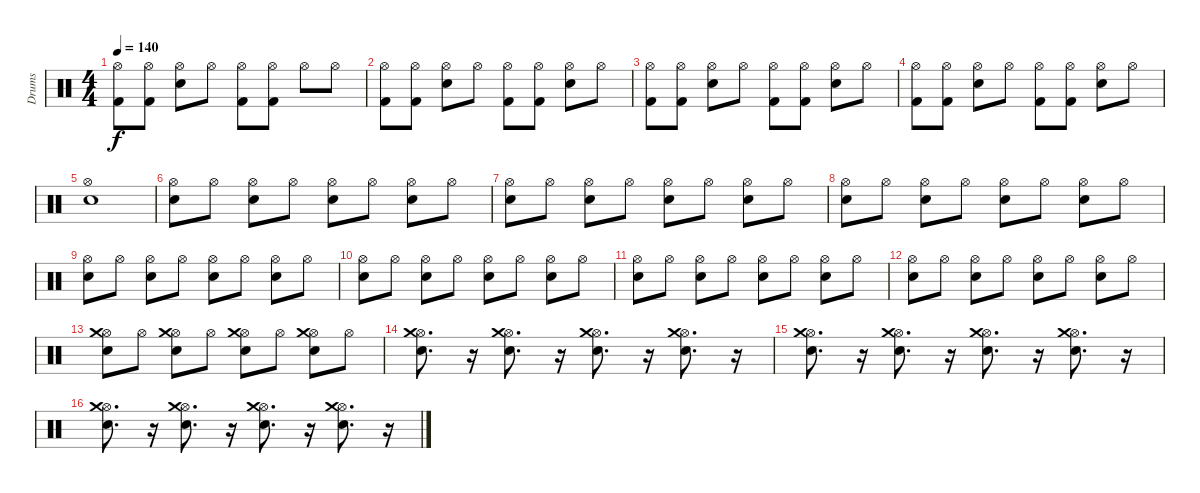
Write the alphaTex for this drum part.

\track ("Drums" "Drums") {instrument percussion}
\staff {score}
\articulation defaults
\ts (4 4)
\tempo 140
\clef neutral
\ks c
("Kick (hit) 2" "Hi-Hat (open)").8{dy f} ("Kick (hit) 2" "Hi-Hat (open)").8 ("Snare (hit) 2" "Hi-Hat (open)").8 "Hi-Hat (open)".8 ("Kick (hit) 2" "Hi-Hat (open)").8 ("Kick (hit) 2" "Hi-Hat (open)").8 "Hi-Hat (open)".8 "Hi-Hat (open)".8 |
("Kick (hit) 2" "Hi-Hat (open)").8 ("Kick (hit) 2" "Hi-Hat (open)").8 ("Snare (hit) 2" "Hi-Hat (open)").8 "Hi-Hat (open)".8 ("Kick (hit) 2" "Hi-Hat (open)").8 ("Kick (hit) 2" "Hi-Hat (open)").8 ("Hi-Hat (open)" "Snare (hit) 2").8 "Hi-Hat (open)".8 |
("Kick (hit) 2" "Hi-Hat (open)").8 ("Kick (hit) 2" "Hi-Hat (open)").8 ("Snare (hit) 2" "Hi-Hat (open)").8 "Hi-Hat (open)".8 ("Kick (hit) 2" "Hi-Hat (open)").8 ("Kick (hit) 2" "Hi-Hat (open)").8 ("Snare (hit) 2" "Hi-Hat (open)").8 "Hi-Hat (open)".8 |
("Kick (hit) 2" "Hi-Hat (open)").8 ("Kick (hit) 2" "Hi-Hat (open)").8 ("Snare (hit) 2" "Hi-Hat (open)").8 "Hi-Hat (open)".8 ("Kick (hit) 2" "Hi-Hat (open)").8 ("Kick (hit) 2" "Hi-Hat (open)").8 ("Snare (hit) 2" "Hi-Hat (open)").8 "Hi-Hat (open)".8 |
("Hi-Hat (open)" "Snare (hit) 2").1 |
("Snare (hit) 2" "Hi-Hat (open)").8 "Hi-Hat (open)".8 ("Snare (hit) 2" "Hi-Hat (open)").8 "Hi-Hat (open)".8 ("Snare (hit) 2" "Hi-Hat (open)").8 "Hi-Hat (open)".8 ("Snare (hit) 2" "Hi-Hat (open)").8 "Hi-Hat (open)".8 |
("Snare (hit) 2" "Hi-Hat (open)").8 "Hi-Hat (open)".8 ("Snare (hit) 2" "Hi-Hat (open)").8 "Hi-Hat (open)".8 ("Snare (hit) 2" "Hi-Hat (open)").8 "Hi-Hat (open)".8 ("Snare (hit) 2" "Hi-Hat (open)").8 "Hi-Hat (open)".8 |
("Snare (hit) 2" "Hi-Hat (open)").8 "Hi-Hat (open)".8 ("Snare (hit) 2" "Hi-Hat (open)").8 "Hi-Hat (open)".8 ("Snare (hit) 2" "Hi-Hat (open)").8 "Hi-Hat (open)".8 ("Snare (hit) 2" "Hi-Hat (open)").8 "Hi-Hat (open)".8 |
("Snare (hit) 2" "Hi-Hat (open)").8 "Hi-Hat (open)".8 ("Snare (hit) 2" "Hi-Hat (open)").8 "Hi-Hat (open)".8 ("Snare (hit) 2" "Hi-Hat (open)").8 "Hi-Hat (open)".8 ("Snare (hit) 2" "Hi-Hat (open)").8 "Hi-Hat (open)".8 |
("Snare (hit) 2" "Hi-Hat (open)").8 "Hi-Hat (open)".8 ("Snare (hit) 2" "Hi-Hat (open)").8 "Hi-Hat (open)".8 ("Snare (hit) 2" "Hi-Hat (open)").8 "Hi-Hat (open)".8 ("Snare (hit) 2" "Hi-Hat (open)").8 "Hi-Hat (open)".8 |
("Snare (hit) 2" "Hi-Hat (open)").8 "Hi-Hat (open)".8 ("Snare (hit) 2" "Hi-Hat (open)").8 "Hi-Hat (open)".8 ("Snare (hit) 2" "Hi-Hat (open)").8 "Hi-Hat (open)".8 ("Snare (hit) 2" "Hi-Hat (open)").8 "Hi-Hat (open)".8 |
("Snare (hit) 2" "Hi-Hat (open)").8 "Hi-Hat (open)".8 ("Snare (hit) 2" "Hi-Hat (open)").8 "Hi-Hat (open)".8 ("Snare (hit) 2" "Hi-Hat (open)").8 "Hi-Hat (open)".8 ("Snare (hit) 2" "Hi-Hat (open)").8 "Hi-Hat (open)".8 |
("Snare (hit) 2" "Hi-Hat (open)" "Crash medium (hit)").8 "Hi-Hat (open)".8 ("Snare (hit) 2" "Hi-Hat (open)" "Crash medium (hit)").8 "Hi-Hat (open)".8 ("Snare (hit) 2" "Hi-Hat (open)" "Crash medium (hit)").8 "Hi-Hat (open)".8 ("Snare (hit) 2" "Hi-Hat (open)" "Crash medium (hit)").8 "Hi-Hat (open)".8 |
("Snare (hit) 2" "Hi-Hat (open)" "Crash medium (hit)").8{d} r.16 ("Snare (hit) 2" "Hi-Hat (open)" "Crash medium (hit)").8{d} r.16 ("Snare (hit) 2" "Hi-Hat (open)" "Crash medium (hit)").8{d} r.16 ("Snare (hit) 2" "Hi-Hat (open)" "Crash medium (hit)").8{d} r.16 |
("Snare (hit) 2" "Hi-Hat (open)" "Crash medium (hit)").8{d} r.16 ("Snare (hit) 2" "Hi-Hat (open)" "Crash medium (hit)").8{d} r.16 ("Snare (hit) 2" "Hi-Hat (open)" "Crash medium (hit)").8{d} r.16 ("Snare (hit) 2" "Hi-Hat (open)" "Crash medium (hit)").8{d} r.16 |
("Snare (hit) 2" "Hi-Hat (open)" "Crash medium (hit)").8{d} r.16 ("Snare (hit) 2" "Hi-Hat (open)" "Crash medium (hit)").8{d} r.16 ("Snare (hit) 2" "Hi-Hat (open)" "Crash medium (hit)").8{d} r.16 ("Snare (hit) 2" "Hi-Hat (open)" "Crash medium (hit)").8{d} r.16
